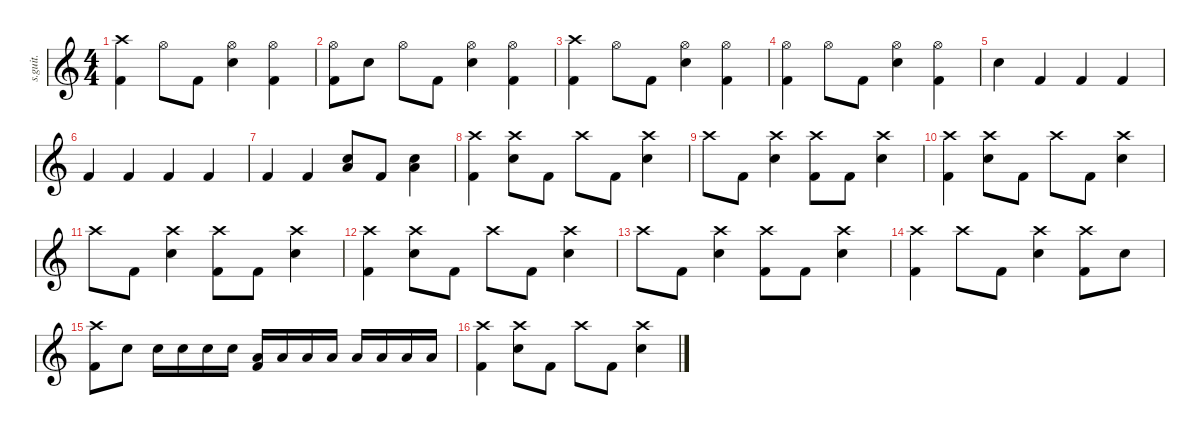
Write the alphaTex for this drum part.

\defaultSystemsLayout 4
\hideDynamics
\bracketExtendMode nobrackets
\track ("" "s.guit.") {instrument percussion}
\staff {score}
\articulation defaults
\ts (4 4)
\tempo (190 hide)
\clef g2
\ks c
("Crash high (hit)" "Kick (hit) 2").4{dy f} "Hi-Hat (open)".8 "Kick (hit) 2".8 ("Hi-Hat (open)" "Snare (hit) 2").4 ("Hi-Hat (open)" "Kick (hit) 2").4 |
("Hi-Hat (open)" "Kick (hit) 2").8 "Snare (hit) 2".8 "Hi-Hat (open)".8 "Kick (hit) 2".8 ("Hi-Hat (open)" "Snare (hit) 2").4 ("Hi-Hat (open)" "Kick (hit) 2").4 |
("Crash high (hit)" "Kick (hit) 2").4 "Hi-Hat (open)".8 "Kick (hit) 2".8 ("Hi-Hat (open)" "Snare (hit) 2").4 ("Hi-Hat (open)" "Kick (hit) 2").4 |
("Hi-Hat (open)" "Kick (hit) 2").4 "Hi-Hat (open)".8 "Kick (hit) 2".8 ("Hi-Hat (open)" "Snare (hit) 2").4 ("Hi-Hat (open)" "Kick (hit) 2").4 |
"Snare (hit) 2".4 "Kick (hit) 2".4 "Kick (hit) 2".4 "Kick (hit) 2".4 |
"Kick (hit) 2".4 "Kick (hit) 2".4 "Kick (hit) 2".4 "Kick (hit) 2".4 |
"Kick (hit) 2".4 "Kick (hit) 2".4 ("Snare (hit) 2" "Low Floor Tom (hit)").8 "Kick (hit) 2".8 ("Snare (hit) 2" "Low Floor Tom (hit)").4 |
("Crash high (hit)" "Kick (hit) 2").4 ("Crash high (hit)" "Snare (hit) 2").8 "Kick (hit) 2".8 "Crash high (hit)".8 "Kick (hit) 2".8 ("Crash high (hit)" "Snare (hit) 2").4 |
"Crash high (hit)".8 "Kick (hit) 2".8 ("Crash high (hit)" "Snare (hit) 2").4 ("Crash high (hit)" "Kick (hit) 2").8 "Kick (hit) 2".8 ("Crash high (hit)" "Snare (hit) 2").4 |
("Crash high (hit)" "Kick (hit) 2").4 ("Crash high (hit)" "Snare (hit) 2").8 "Kick (hit) 2".8 "Crash high (hit)".8 "Kick (hit) 2".8 ("Crash high (hit)" "Snare (hit) 2").4 |
"Crash high (hit)".8 "Kick (hit) 2".8 ("Crash high (hit)" "Snare (hit) 2").4 ("Crash high (hit)" "Kick (hit) 2").8 "Kick (hit) 2".8 ("Crash high (hit)" "Snare (hit) 2").4 |
("Crash high (hit)" "Kick (hit) 2").4 ("Crash high (hit)" "Snare (hit) 2").8 "Kick (hit) 2".8 "Crash high (hit)".8 "Kick (hit) 2".8 ("Crash high (hit)" "Snare (hit) 2").4 |
"Crash high (hit)".8 "Kick (hit) 2".8 ("Crash high (hit)" "Snare (hit) 2").4 ("Crash high (hit)" "Kick (hit) 2").8 "Kick (hit) 2".8 ("Crash high (hit)" "Snare (hit) 2").4 |
("Crash high (hit)" "Kick (hit) 2").4 "Crash high (hit)".8 "Kick (hit) 2".8 ("Crash high (hit)" "Snare (hit) 2").4 ("Crash high (hit)" "Kick (hit) 2").8 "Snare (hit) 2".8 |
("Crash high (hit)" "Kick (hit) 2").8 "Snare (hit) 2".8 "Snare (hit) 2".16 "Snare (hit) 2".16 "Snare (hit) 2".16 "Snare (hit) 2".16 ("Low Tom (hit)" "Kick (hit) 2").16 "Low Tom (hit)".16 "Low Tom (hit)".16 "Low Tom (hit)".16 "Low Floor Tom (hit)".16 "Low Floor Tom (hit)".16 "Low Floor Tom (hit)".16 "Low Floor Tom (hit)".16 |
("Crash high (hit)" "Kick (hit) 2").4 ("Crash high (hit)" "Snare (hit) 2").8 "Kick (hit) 2".8 "Crash high (hit)".8 "Kick (hit) 2".8 ("Crash high (hit)" "Snare (hit) 2").4
